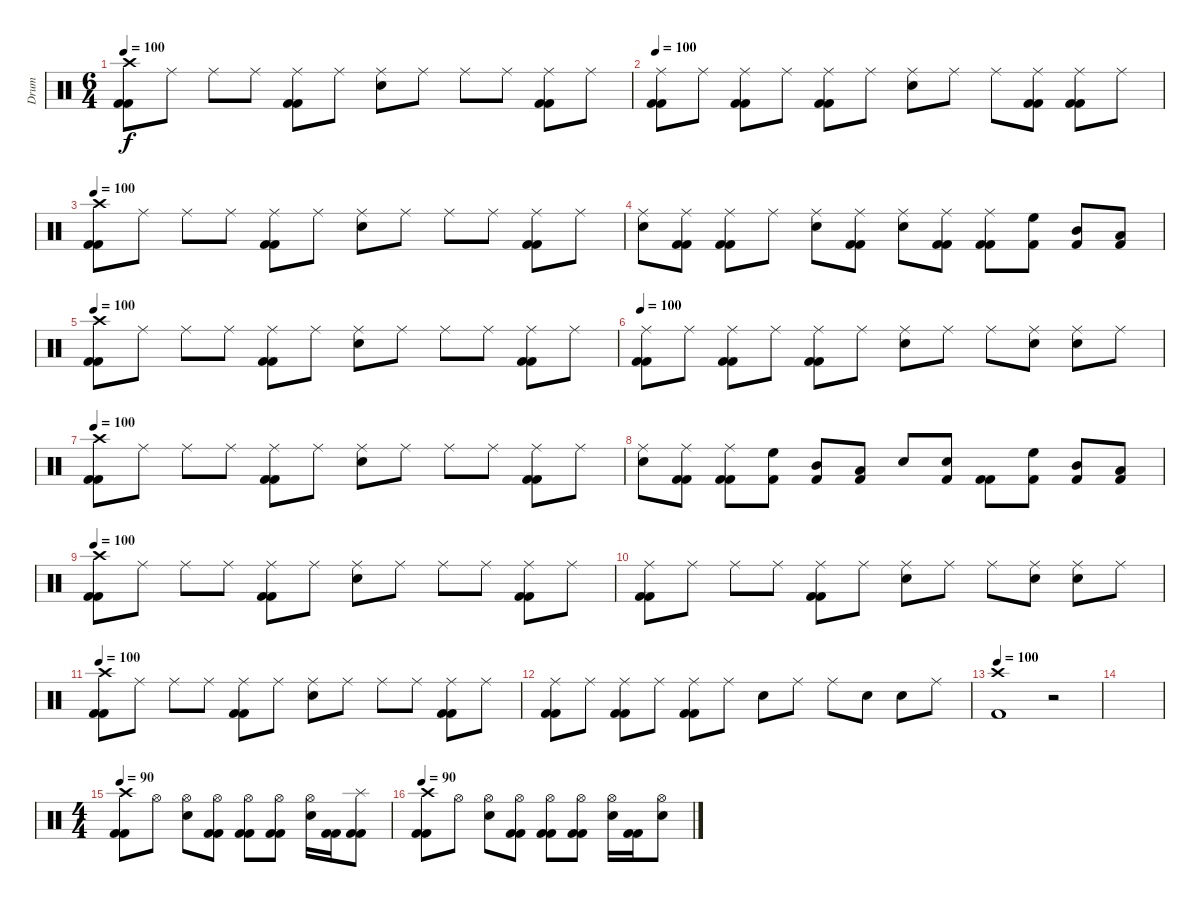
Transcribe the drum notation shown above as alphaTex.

\track ("Drum" "Drum") {instrument percussion}
\staff {score}
\articulation defaults
\ts (6 4)
\tempo 100
\clef neutral
\ks c
("Crash high (hit)" "Kick (hit) 2" "Kick (hit) 2").8{dy f} "Ride (middle)".8 "Ride (middle)".8 "Ride (middle)".8 ("Ride (middle)" "Kick (hit) 2" "Kick (hit) 2").8 "Ride (middle)".8 ("Ride (middle)" "Electric Snare (hit)").8 "Ride (middle)".8 "Ride (middle)".8 "Ride (middle)".8 ("Ride (middle)" "Kick (hit) 2" "Kick (hit) 2").8 "Ride (middle)".8 |
\tempo 100
("Ride (middle)" "Kick (hit) 2" "Kick (hit) 2").8 "Ride (middle)".8 ("Ride (middle)" "Kick (hit) 2" "Kick (hit) 2").8 "Ride (middle)".8 ("Ride (middle)" "Kick (hit) 2" "Kick (hit) 2").8 "Ride (middle)".8 ("Ride (middle)" "Electric Snare (hit)").8 "Ride (middle)".8 "Ride (middle)".8 ("Ride (middle)" "Kick (hit) 2" "Kick (hit) 2").8 ("Ride (middle)" "Kick (hit) 2" "Kick (hit) 2").8 "Ride (middle)".8 |
\tempo 100
("Crash high (hit)" "Kick (hit) 2" "Kick (hit) 2").8 "Ride (middle)".8 "Ride (middle)".8 "Ride (middle)".8 ("Ride (middle)" "Kick (hit) 2" "Kick (hit) 2").8 "Ride (middle)".8 ("Ride (middle)" "Electric Snare (hit)").8 "Ride (middle)".8 "Ride (middle)".8 "Ride (middle)".8 ("Ride (middle)" "Kick (hit) 2" "Kick (hit) 2").8 "Ride (middle)".8 |
("Ride (middle)" "Electric Snare (hit)").8 ("Ride (middle)" "Kick (hit) 2" "Kick (hit) 2").8 ("Ride (middle)" "Kick (hit) 2" "Kick (hit) 2").8 "Ride (middle)".8 ("Ride (middle)" "Electric Snare (hit)").8 ("Ride (middle)" "Kick (hit) 2" "Kick (hit) 2").8 ("Ride (middle)" "Electric Snare (hit)").8 ("Ride (middle)" "Kick (hit) 2" "Kick (hit) 2").8 ("Ride (middle)" "Kick (hit) 2" "Kick (hit) 2").8 ("Kick (hit) 2" "High Floor Tom (hit)").8 ("Kick (hit) 2" "Mid Tom (hit)").8 ("Kick (hit) 2" "Low Tom (hit)").8 |
\tempo 100
("Crash high (hit)" "Kick (hit) 2" "Kick (hit) 2").8 "Ride (middle)".8 "Ride (middle)".8 "Ride (middle)".8 ("Ride (middle)" "Kick (hit) 2" "Kick (hit) 2").8 "Ride (middle)".8 ("Ride (middle)" "Electric Snare (hit)").8 "Ride (middle)".8 "Ride (middle)".8 "Ride (middle)".8 ("Ride (middle)" "Kick (hit) 2" "Kick (hit) 2").8 "Ride (middle)".8 |
\tempo 100
("Ride (middle)" "Kick (hit) 2" "Kick (hit) 2").8 "Ride (middle)".8 ("Ride (middle)" "Kick (hit) 2" "Kick (hit) 2").8 "Ride (middle)".8 ("Ride (middle)" "Kick (hit) 2" "Kick (hit) 2").8 "Ride (middle)".8 ("Ride (middle)" "Electric Snare (hit)").8 "Ride (middle)".8 "Ride (middle)".8 ("Ride (middle)" "Electric Snare (hit)").8 ("Ride (middle)" "Electric Snare (hit)").8 "Ride (middle)".8 |
\tempo 100
("Crash high (hit)" "Kick (hit) 2" "Kick (hit) 2").8 "Ride (middle)".8 "Ride (middle)".8 "Ride (middle)".8 ("Ride (middle)" "Kick (hit) 2" "Kick (hit) 2").8 "Ride (middle)".8 ("Ride (middle)" "Electric Snare (hit)").8 "Ride (middle)".8 "Ride (middle)".8 "Ride (middle)".8 ("Ride (middle)" "Kick (hit) 2" "Kick (hit) 2").8 "Ride (middle)".8 |
("Ride (middle)" "Electric Snare (hit)").8 ("Ride (middle)" "Kick (hit) 2" "Kick (hit) 2").8 ("Ride (middle)" "Kick (hit) 2" "Kick (hit) 2").8 ("High Floor Tom (hit)" "Kick (hit) 2").8 ("Mid Tom (hit)" "Kick (hit) 2").8 ("Low Tom (hit)" "Kick (hit) 2").8 "Electric Snare (hit)".8 ("Electric Snare (hit)" "Kick (hit) 2").8 ("Kick (hit) 2" "Kick (hit) 2").8 ("Kick (hit) 2" "High Floor Tom (hit)").8 ("Kick (hit) 2" "Mid Tom (hit)").8 ("Kick (hit) 2" "Low Tom (hit)").8 |
\tempo 100
("Crash high (hit)" "Kick (hit) 2" "Kick (hit) 2").8 "Ride (middle)".8 "Ride (middle)".8 "Ride (middle)".8 ("Ride (middle)" "Kick (hit) 2" "Kick (hit) 2").8 "Ride (middle)".8 ("Ride (middle)" "Electric Snare (hit)").8 "Ride (middle)".8 "Ride (middle)".8 "Ride (middle)".8 ("Ride (middle)" "Kick (hit) 2" "Kick (hit) 2").8 "Ride (middle)".8 |
("Ride (middle)" "Kick (hit) 2" "Kick (hit) 2").8 "Ride (middle)".8 "Ride (middle)".8 "Ride (middle)".8 ("Ride (middle)" "Kick (hit) 2" "Kick (hit) 2").8 "Ride (middle)".8 ("Ride (middle)" "Electric Snare (hit)").8 "Ride (middle)".8 "Ride (middle)".8 ("Ride (middle)" "Electric Snare (hit)").8 ("Ride (middle)" "Electric Snare (hit)").8 "Ride (middle)".8 |
\tempo 100
("Crash high (hit)" "Kick (hit) 2" "Kick (hit) 2").8 "Ride (middle)".8 "Ride (middle)".8 "Ride (middle)".8 ("Ride (middle)" "Kick (hit) 2" "Kick (hit) 2").8 "Ride (middle)".8 ("Ride (middle)" "Electric Snare (hit)").8 "Ride (middle)".8 "Ride (middle)".8 "Ride (middle)".8 ("Ride (middle)" "Kick (hit) 2" "Kick (hit) 2").8 "Ride (middle)".8 |
("Ride (middle)" "Kick (hit) 2" "Kick (hit) 2").8 "Ride (middle)".8 ("Ride (middle)" "Kick (hit) 2" "Kick (hit) 2").8 "Ride (middle)".8 ("Ride (middle)" "Kick (hit) 2" "Kick (hit) 2").8 "Ride (middle)".8 "Electric Snare (hit)".8 "Ride (middle)".8 "Ride (middle)".8 "Electric Snare (hit)".8 "Electric Snare (hit)".8 "Ride (middle)".8 |
\tempo 100
("Crash high (hit)" "Kick (hit) 2").1 r.2 |
|
\ts (4 4)
\tempo 90
("Crash high (hit)" "Kick (hit) 2" "Kick (hit) 2").8 "Hi-Hat (open)".8 ("Hi-Hat (open)" "Electric Snare (hit)").8 ("Hi-Hat (open)" "Kick (hit) 2" "Kick (hit) 2").8 ("Hi-Hat (open)" "Kick (hit) 2" "Kick (hit) 2").8 ("Hi-Hat (open)" "Kick (hit) 2" "Kick (hit) 2").8 ("Hi-Hat (open)" "Electric Snare (hit)").16 ("Kick (hit) 2" "Kick (hit) 2").16 ("Splash (hit)" "Kick (hit) 2" "Kick (hit) 2").8 |
\tempo 90
("Crash high (hit)" "Kick (hit) 2" "Kick (hit) 2").8 "Hi-Hat (open)".8 ("Hi-Hat (open)" "Electric Snare (hit)").8 ("Hi-Hat (open)" "Kick (hit) 2" "Kick (hit) 2").8 ("Hi-Hat (open)" "Kick (hit) 2" "Kick (hit) 2").8 ("Hi-Hat (open)" "Kick (hit) 2" "Kick (hit) 2").8 ("Hi-Hat (open)" "Electric Snare (hit)").16 ("Kick (hit) 2" "Kick (hit) 2").16 ("Hi-Hat (open)" "Electric Snare (hit)").8
